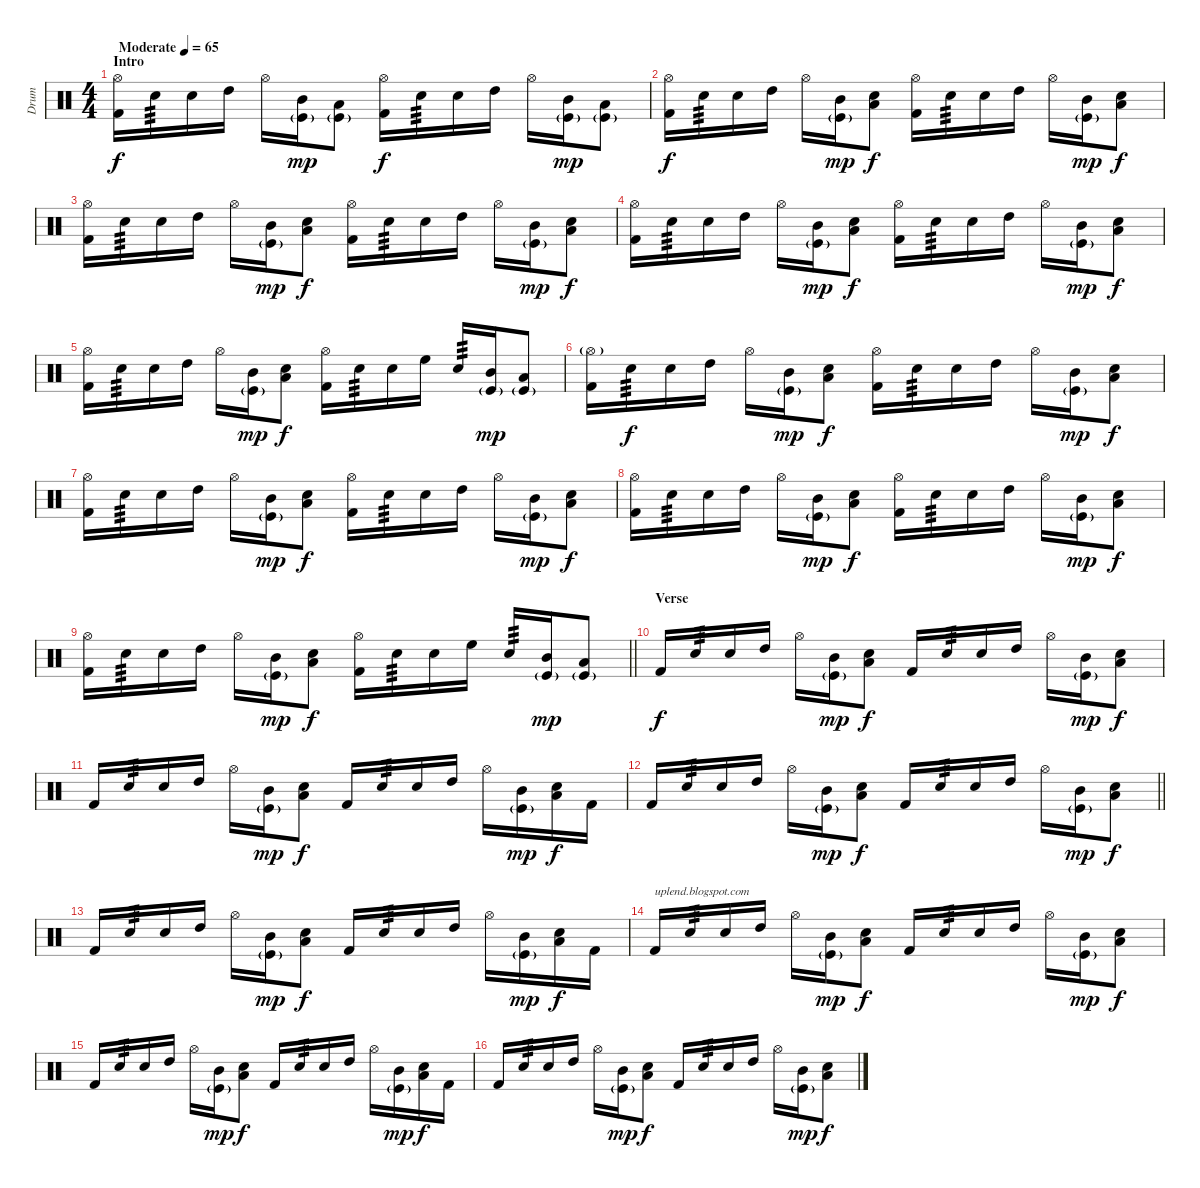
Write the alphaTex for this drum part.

\track ("Drum" "Drum") {instrument percussion}
\staff {score}
\articulation defaults
\ts (4 4)
\section ("" "Intro")
\tempo (65 "Moderate")
\clef neutral
\ks c
("Hi-Hat (open)" "Kick (hit) 2").16{dy f} "Electric Snare (hit)".16{tp 3} "Electric Snare (hit)".16 "High Tom (hit)".16 "Hi-Hat (open)".16 ("Mid Tom (hit)" "Kick (hit)"{g}).16{dy mp} ("Low Tom (hit)" "Kick (hit)"{g}).8 ("Hi-Hat (open)" "Kick (hit) 2").16{dy f} "Electric Snare (hit)".16{tp 3} "Electric Snare (hit)".16 "High Tom (hit)".16 "Hi-Hat (open)".16 ("Mid Tom (hit)" "Kick (hit)"{g}).16{dy mp} ("Low Tom (hit)" "Kick (hit)"{g}).8 |
("Hi-Hat (open)" "Kick (hit) 2").16{dy f} "Electric Snare (hit)".16{tp 3} "Electric Snare (hit)".16 "High Tom (hit)".16 "Hi-Hat (open)".16 ("Mid Tom (hit)" "Kick (hit)"{g}).16{dy mp} ("Low Floor Tom (hit)" "Electric Snare (hit)").8{dy f} ("Hi-Hat (open)" "Kick (hit) 2").16 "Electric Snare (hit)".16{tp 3} "Electric Snare (hit)".16 "High Tom (hit)".16 "Hi-Hat (open)".16 ("Mid Tom (hit)" "Kick (hit)"{g}).16{dy mp} ("Low Floor Tom (hit)" "Electric Snare (hit)").8{dy f} |
("Hi-Hat (open)" "Kick (hit) 2").16 "Electric Snare (hit)".16{tp 3} "Electric Snare (hit)".16 "High Tom (hit)".16 "Hi-Hat (open)".16 ("Mid Tom (hit)" "Kick (hit)"{g}).16{dy mp} ("Low Floor Tom (hit)" "Electric Snare (hit)").8{dy f} ("Hi-Hat (open)" "Kick (hit) 2").16 "Electric Snare (hit)".16{tp 3} "Electric Snare (hit)".16 "High Tom (hit)".16 "Hi-Hat (open)".16 ("Mid Tom (hit)" "Kick (hit)"{g}).16{dy mp} ("Low Floor Tom (hit)" "Electric Snare (hit)").8{dy f} |
("Hi-Hat (open)" "Kick (hit) 2").16 "Electric Snare (hit)".16{tp 3} "Electric Snare (hit)".16 "High Tom (hit)".16 "Hi-Hat (open)".16 ("Mid Tom (hit)" "Kick (hit)"{g}).16{dy mp} ("Low Floor Tom (hit)" "Electric Snare (hit)").8{dy f} ("Hi-Hat (open)" "Kick (hit) 2").16 "Electric Snare (hit)".16{tp 3} "Electric Snare (hit)".16 "High Tom (hit)".16 "Hi-Hat (open)".16 ("Mid Tom (hit)" "Kick (hit)"{g}).16{dy mp} ("Low Floor Tom (hit)" "Electric Snare (hit)").8{dy f} |
("Hi-Hat (open)" "Kick (hit) 2").16 "Electric Snare (hit)".16{tp 3} "Electric Snare (hit)".16 "High Tom (hit)".16 "Hi-Hat (open)".16 ("Mid Tom (hit)" "Kick (hit)"{g}).16{dy mp} ("Low Floor Tom (hit)" "Electric Snare (hit)").8{dy f} ("Hi-Hat (open)" "Kick (hit) 2").16 "Electric Snare (hit)".16{tp 3} "Electric Snare (hit)".16 "High Floor Tom (hit)".16 "Electric Snare (hit)".16{tp 3} ("Mid Tom (hit)" "Kick (hit)"{g}).16{dy mp} ("Low Tom (hit)" "Kick (hit)"{g}).8 |
("Hi-Hat (open)"{g} "Kick (hit) 2").16 "Electric Snare (hit)".16{tp 3 dy f} "Electric Snare (hit)".16 "High Tom (hit)".16 "Hi-Hat (open)".16 ("Mid Tom (hit)" "Kick (hit)"{g}).16{dy mp} ("Low Floor Tom (hit)" "Electric Snare (hit)").8{dy f} ("Hi-Hat (open)" "Kick (hit) 2").16 "Electric Snare (hit)".16{tp 3} "Electric Snare (hit)".16 "High Tom (hit)".16 "Hi-Hat (open)".16 ("Mid Tom (hit)" "Kick (hit)"{g}).16{dy mp} ("Low Floor Tom (hit)" "Electric Snare (hit)").8{dy f} |
("Hi-Hat (open)" "Kick (hit) 2").16 "Electric Snare (hit)".16{tp 3} "Electric Snare (hit)".16 "High Tom (hit)".16 "Hi-Hat (open)".16 ("Mid Tom (hit)" "Kick (hit)"{g}).16{dy mp} ("Low Floor Tom (hit)" "Electric Snare (hit)").8{dy f} ("Hi-Hat (open)" "Kick (hit) 2").16 "Electric Snare (hit)".16{tp 3} "Electric Snare (hit)".16 "High Tom (hit)".16 "Hi-Hat (open)".16 ("Mid Tom (hit)" "Kick (hit)"{g}).16{dy mp} ("Low Floor Tom (hit)" "Electric Snare (hit)").8{dy f} |
("Hi-Hat (open)" "Kick (hit) 2").16 "Electric Snare (hit)".16{tp 3} "Electric Snare (hit)".16 "High Tom (hit)".16 "Hi-Hat (open)".16 ("Mid Tom (hit)" "Kick (hit)"{g}).16{dy mp} ("Low Floor Tom (hit)" "Electric Snare (hit)").8{dy f} ("Hi-Hat (open)" "Kick (hit) 2").16 "Electric Snare (hit)".16{tp 3} "Electric Snare (hit)".16 "High Tom (hit)".16 "Hi-Hat (open)".16 ("Mid Tom (hit)" "Kick (hit)"{g}).16{dy mp} ("Low Floor Tom (hit)" "Electric Snare (hit)").8{dy f} |
\barLineRight lightlight
("Hi-Hat (open)" "Kick (hit) 2").16 "Electric Snare (hit)".16{tp 3} "Electric Snare (hit)".16 "High Tom (hit)".16 "Hi-Hat (open)".16 ("Mid Tom (hit)" "Kick (hit)"{g}).16{dy mp} ("Low Floor Tom (hit)" "Electric Snare (hit)").8{dy f} ("Hi-Hat (open)" "Kick (hit) 2").16 "Electric Snare (hit)".16{tp 3} "Electric Snare (hit)".16 "High Floor Tom (hit)".16 "Electric Snare (hit)".16{tp 3} ("Mid Tom (hit)" "Kick (hit)"{g}).16{dy mp} ("Low Tom (hit)" "Kick (hit)"{g}).8 |
\section ("" "Verse")
"Kick (hit) 2".16{dy f} "Electric Snare (hit)".16{tp 3} "Electric Snare (hit)".16 "High Tom (hit)".16 "Hi-Hat (open)".16 ("Mid Tom (hit)" "Kick (hit)"{g}).16{dy mp} ("Low Floor Tom (hit)" "Electric Snare (hit)").8{dy f} "Kick (hit) 2".16 "Electric Snare (hit)".16{tp 3} "Electric Snare (hit)".16 "High Tom (hit)".16 "Hi-Hat (open)".16 ("Mid Tom (hit)" "Kick (hit)"{g}).16{dy mp} ("Low Floor Tom (hit)" "Electric Snare (hit)").8{dy f} |
"Kick (hit) 2".16 "Electric Snare (hit)".16{tp 3} "Electric Snare (hit)".16 "High Tom (hit)".16 "Hi-Hat (open)".16 ("Mid Tom (hit)" "Kick (hit)"{g}).16{dy mp} ("Low Floor Tom (hit)" "Electric Snare (hit)").8{dy f} "Kick (hit) 2".16 "Electric Snare (hit)".16{tp 3} "Electric Snare (hit)".16 "High Tom (hit)".16 "Hi-Hat (open)".16 ("Mid Tom (hit)" "Kick (hit)"{g}).16{dy mp} ("Low Floor Tom (hit)" "Electric Snare (hit)").16{dy f} "Kick (hit) 2".16 |
\barLineRight lightlight "Kick (hit) 2".16 "Electric Snare (hit)".16{tp 3} "Electric Snare (hit)".16 "High Tom (hit)".16 "Hi-Hat (open)".16
("Mid Tom (hit)" "Kick (hit)"{g}).16{dy mp} ("Low Floor Tom (hit)" "Electric Snare (hit)").8{dy f} "Kick (hit) 2".16 "Electric Snare (hit)".16{tp 3} "Electric Snare (hit)".16 "High Tom (hit)".16 "Hi-Hat (open)".16 ("Mid Tom (hit)" "Kick (hit)"{g}).16{dy mp} ("Low Floor Tom (hit)" "Electric Snare (hit)").8{dy f} |
"Kick (hit) 2".16 "Electric Snare (hit)".16{tp 3} "Electric Snare (hit)".16 "High Tom (hit)".16 "Hi-Hat (open)".16 ("Mid Tom (hit)" "Kick (hit)"{g}).16{dy mp} ("Low Floor Tom (hit)" "Electric Snare (hit)").8{dy f} "Kick (hit) 2".16 "Electric Snare (hit)".16{tp 3} "Electric Snare (hit)".16 "High Tom (hit)".16 "Hi-Hat (open)".16 ("Mid Tom (hit)" "Kick (hit)"{g}).16{dy mp} ("Low Floor Tom (hit)" "Electric Snare (hit)").16{dy f} "Kick (hit) 2".16 |
"Kick (hit) 2".16{txt "uplend.blogspot.com"} "Electric Snare (hit)".16{tp 3} "Electric Snare (hit)".16 "High Tom (hit)".16 "Hi-Hat (open)".16 ("Mid Tom (hit)" "Kick (hit)"{g}).16{dy mp} ("Low Floor Tom (hit)" "Electric Snare (hit)").8{dy f} "Kick (hit) 2".16 "Electric Snare (hit)".16{tp 3} "Electric Snare (hit)".16 "High Tom (hit)".16 "Hi-Hat (open)".16 ("Mid Tom (hit)" "Kick (hit)"{g}).16{dy mp} ("Low Floor Tom (hit)" "Electric Snare (hit)").8{dy f} |
"Kick (hit) 2".16 "Electric Snare (hit)".16{tp 3} "Electric Snare (hit)".16 "High Tom (hit)".16 "Hi-Hat (open)".16 ("Mid Tom (hit)" "Kick (hit)"{g}).16{dy mp} ("Low Floor Tom (hit)" "Electric Snare (hit)").8{dy f} "Kick (hit) 2".16 "Electric Snare (hit)".16{tp 3} "Electric Snare (hit)".16 "High Tom (hit)".16 "Hi-Hat (open)".16 ("Mid Tom (hit)" "Kick (hit)"{g}).16{dy mp} ("Low Floor Tom (hit)" "Electric Snare (hit)").16{dy f} "Kick (hit) 2".16 |
"Kick (hit) 2".16 "Electric Snare (hit)".16{tp 3} "Electric Snare (hit)".16 "High Tom (hit)".16 "Hi-Hat (open)".16 ("Mid Tom (hit)" "Kick (hit)"{g}).16{dy mp} ("Low Floor Tom (hit)" "Electric Snare (hit)").8{dy f} "Kick (hit) 2".16 "Electric Snare (hit)".16{tp 3} "Electric Snare (hit)".16 "High Tom (hit)".16 "Hi-Hat (open)".16 ("Mid Tom (hit)" "Kick (hit)"{g}).16{dy mp} ("Low Floor Tom (hit)" "Electric Snare (hit)").8{dy f}
